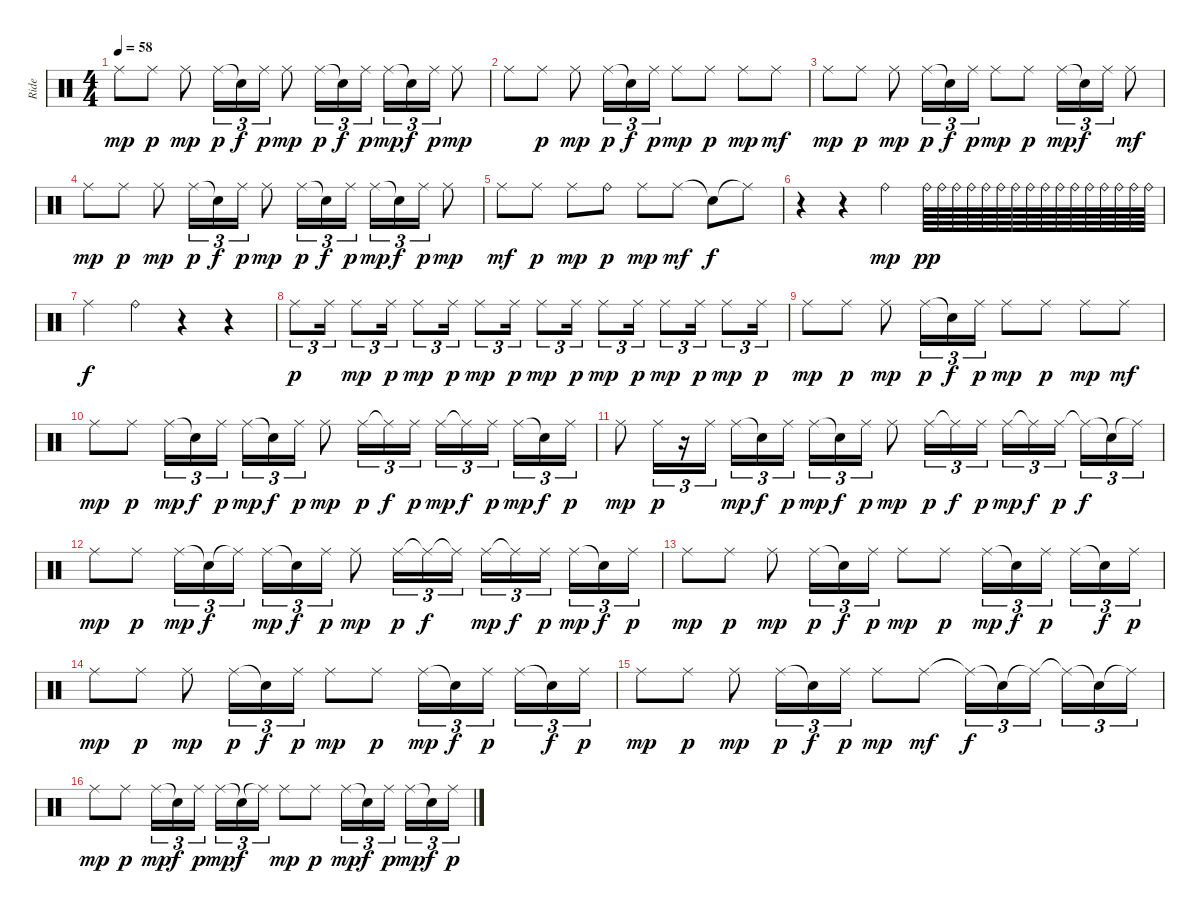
\track ("Ride" "Ride") {instrument percussion}
\staff {score}
\articulation defaults
\ts (4 4)
\tempo 58
\clef neutral
\ks c "Ride (middle)".8{dy mp} "Ride (middle)".8{dy p} "Ride (middle)".8{dy mp} "Ride (middle)".16{tu (3 2) dy p} "Snare (hit)"{t}.16{tu (3 2) dy f} "Ride (middle)".16{tu (3 2) dy p} "Ride (middle)".8{dy mp} "Ride (middle)".16{tu (3 2) dy p} "Snare (hit)"{t}.16{tu (3 2) dy f} "Ride (middle)".16{tu (3 2) dy p} "Ride (middle)".16{tu (3 2) dy mp} "Snare (hit)"{t}.16{tu (3 2) dy f} "Ride (middle)".16{tu (3 2) dy p} "Ride (middle)".8{dy mp}
|
"Ride (middle)".8 "Ride (middle)".8{dy p} "Ride (middle)".8{dy mp} "Ride (middle)".16{tu (3 2) dy p} "Snare (hit)"{t}.16{tu (3 2) dy f} "Ride (middle)".16{tu (3 2) dy p} "Ride (middle)".8{dy mp} "Ride (middle)".8{dy p} "Ride (middle)".8{dy mp} "Ride (middle)".8{dy mf} |
"Ride (middle)".8{dy mp} "Ride (middle)".8{dy p} "Ride (middle)".8{dy mp} "Ride (middle)".16{tu (3 2) dy p} "Snare (hit)"{t}.16{tu (3 2) dy f} "Ride (middle)".16{tu (3 2) dy p} "Ride (middle)".8{dy mp} "Ride (middle)".8{dy p} "Ride (middle)".16{tu (3 2) dy mp} "Snare (hit)"{t}.16{tu (3 2) dy f} "Ride (middle)".16{tu (3 2)} "Ride (middle)".8{dy mf} |
"Ride (middle)".8{dy mp} "Ride (middle)".8{dy p} "Ride (middle)".8{dy mp} "Ride (middle)".16{tu (3 2) dy p} "Snare (hit)"{t}.16{tu (3 2) dy f} "Ride (middle)".16{tu (3 2) dy p} "Ride (middle)".8{dy mp} "Ride (middle)".16{tu (3 2) dy p} "Snare (hit)"{t}.16{tu (3 2) dy f} "Ride (middle)".16{tu (3 2) dy p} "Ride (middle)".16{tu (3 2) dy mp} "Snare (hit)"{t}.16{tu (3 2) dy f} "Ride (middle)".16{tu (3 2) dy p} "Ride (middle)".8{dy mp} |
"Ride (middle)".8{dy mf} "Ride (middle)".8{dy p} "Ride (middle)".8{dy mp} "Ride (bell)".8{dy p} "Ride (middle)".8{dy mp} "Ride (middle)".8{dy mf} "Snare (hit)"{t}.8{dy f} "Ride (middle)"{t}.8 |
r.4 r.4 "Ride (bell)".4{dy mp} "Ride (bell)".64{dy pp} "Ride (bell)".64 "Ride (bell)".64 "Ride (bell)".64 "Ride (bell)".64 "Ride (bell)".64 "Ride (bell)".64 "Ride (bell)".64 "Ride (bell)".64 "Ride (bell)".64 "Ride (bell)".64 "Ride (bell)".64 "Ride (bell)".64 "Ride (bell)".64 "Ride (bell)".64 "Ride (bell)".64 |
"Ride (middle)".4{dy f} "Ride (bell)".4 r.4 r.4 |
"Ride (middle)".8{tu (3 2) dy p} "Ride (middle)".16{tu (3 2)} "Ride (middle)".8{tu (3 2) dy mp} "Ride (middle)".16{tu (3 2) dy p} "Ride (middle)".8{tu (3 2) dy mp} "Ride (middle)".16{tu (3 2) dy p} "Ride (middle)".8{tu (3 2) dy mp} "Ride (middle)".16{tu (3 2) dy p} "Ride (middle)".8{tu (3 2) dy mp} "Ride (middle)".16{tu (3 2) dy p} "Ride (middle)".8{tu (3 2) dy mp} "Ride (middle)".16{tu (3 2) dy p} "Ride (middle)".8{tu (3 2) dy mp} "Ride (middle)".16{tu (3 2) dy p} "Ride (middle)".8{tu (3 2) dy mp} "Ride (middle)".16{tu (3 2) dy p} |
"Ride (middle)".8{dy mp} "Ride (middle)".8{dy p} "Ride (middle)".8{dy mp} "Ride (middle)".16{tu (3 2) dy p} "Snare (hit)"{t}.16{tu (3 2) dy f} "Ride (middle)".16{tu (3 2) dy p} "Ride (middle)".8{dy mp} "Ride (middle)".8{dy p} "Ride (middle)".8{dy mp} "Ride (middle)".8{dy mf} |
"Ride (middle)".8{dy mp} "Ride (middle)".8{dy p} "Ride (middle)".16{tu (3 2) dy mp} "Snare (hit)"{t}.16{tu (3 2) dy f} "Ride (middle)".16{tu (3 2) dy p} "Ride (middle)".16{tu (3 2) dy mp} "Snare (hit)"{t}.16{tu (3 2) dy f} "Ride (middle)".16{tu (3 2) dy p} "Ride (middle)".8{dy mp} "Ride (middle)".16{tu (3 2) dy p} "Ride (middle)"{t}.16{tu (3 2) dy f} "Ride (middle)".16{tu (3 2) dy p} "Ride (middle)".16{tu (3 2) dy mp} "Ride (middle)"{t}.16{tu (3 2) dy f} "Ride (middle)".16{tu (3 2) dy p} "Ride (middle)".16{tu (3 2) dy mp} "Snare (hit)"{t}.16{tu (3 2) dy f} "Ride (middle)".16{tu (3 2) dy p} |
"Ride (middle)".8{dy mp} "Ride (middle)".16{tu (3 2) dy p} r.16{tu (3 2)} "Ride (middle)".16{tu (3 2)} "Ride (middle)".16{tu (3 2) dy mp} "Snare (hit)"{t}.16{tu (3 2) dy f} "Ride (middle)".16{tu (3 2) dy p} "Ride (middle)".16{tu (3 2) dy mp} "Snare (hit)"{t}.16{tu (3 2) dy f} "Ride (middle)".16{tu (3 2) dy p} "Ride (middle)".8{dy mp} "Ride (middle)".16{tu (3 2) dy p} "Ride (middle)"{t}.16{tu (3 2) dy f} "Ride (middle)".16{tu (3 2) dy p} "Ride (middle)".16{tu (3 2) dy mp} "Ride (middle)"{t}.16{tu (3 2) dy f} "Ride (middle)".16{tu (3 2) dy p} "Ride (middle)"{t}.16{tu (3 2) dy f} "Snare (hit)"{t}.16{tu (3 2)} "Ride (middle)"{t}.16{tu (3 2)} |
"Ride (middle)".8{dy mp} "Ride (middle)".8{dy p} "Ride (middle)".16{tu (3 2) dy mp} "Snare (hit)"{t}.16{tu (3 2) dy f} "Ride (middle)"{t}.16{tu (3 2)} "Ride (middle)".16{tu (3 2) dy mp} "Snare (hit)"{t}.16{tu (3 2) dy f} "Ride (middle)".16{tu (3 2) dy p} "Ride (middle)".8{dy mp} "Ride (middle)".16{tu (3 2) dy p} "Ride (middle)"{t}.16{tu (3 2) dy f} "Ride (middle)"{t}.16{tu (3 2)} "Ride (middle)".16{tu (3 2) dy mp} "Ride (middle)"{t}.16{tu (3 2) dy f} "Ride (middle)".16{tu (3 2) dy p} "Ride (middle)".16{tu (3 2) dy mp} "Snare (hit)"{t}.16{tu (3 2) dy f} "Ride (middle)".16{tu (3 2) dy p} |
"Ride (middle)".8{dy mp} "Ride (middle)".8{dy p} "Ride (middle)".8{dy mp} "Ride (middle)".16{tu (3 2) dy p} "Snare (hit)"{t}.16{tu (3 2) dy f} "Ride (middle)".16{tu (3 2) dy p} "Ride (middle)".8{dy mp} "Ride (middle)".8{dy p} "Ride (middle)".16{tu (3 2) dy mp} "Snare (hit)"{t}.16{tu (3 2) dy f} "Ride (middle)".16{tu (3 2) dy p} "Ride (middle)".16{tu (3 2)} "Snare (hit)"{t}.16{tu (3 2) dy f} "Ride (middle)".16{tu (3 2) dy p} |
"Ride (middle)".8{dy mp} "Ride (middle)".8{dy p} "Ride (middle)".8{dy mp} "Ride (middle)".16{tu (3 2) dy p} "Snare (hit)"{t}.16{tu (3 2) dy f} "Ride (middle)".16{tu (3 2) dy p} "Ride (middle)".8{dy mp} "Ride (middle)".8{dy p} "Ride (middle)".16{tu (3 2) dy mp} "Snare (hit)"{t}.16{tu (3 2) dy f} "Ride (middle)".16{tu (3 2) dy p} "Ride (middle)".16{tu (3 2)} "Snare (hit)"{t}.16{tu (3 2) dy f} "Ride (middle)".16{tu (3 2) dy p} |
"Ride (middle)".8{dy mp} "Ride (middle)".8{dy p} "Ride (middle)".8{dy mp} "Ride (middle)".16{tu (3 2) dy p} "Snare (hit)"{t}.16{tu (3 2) dy f} "Ride (middle)".16{tu (3 2) dy p} "Ride (middle)".8{dy mp} "Ride (middle)".8{dy mf} "Ride (middle)"{t}.16{tu (3 2) dy f} "Snare (hit)"{t}.16{tu (3 2)} "Ride (middle)"{t}.16{tu (3 2)} "Ride (middle)"{t}.16{tu (3 2)} "Snare (hit)"{t}.16{tu (3 2)} "Ride (middle)"{t}.16{tu (3 2)} |
"Ride (middle)".8{dy mp} "Ride (middle)".8{dy p} "Ride (middle)".16{tu (3 2) dy mp} "Snare (hit)"{t}.16{tu (3 2) dy f} "Ride (middle)".16{tu (3 2) dy p} "Ride (middle)".16{tu (3 2) dy mp} "Snare (hit)"{t}.16{tu (3 2) dy f} "Ride (middle)"{t}.16{tu (3 2)} "Ride (middle)".8{dy mp} "Ride (middle)".8{dy p} "Ride (middle)".16{tu (3 2) dy mp} "Snare (hit)"{t}.16{tu (3 2) dy f} "Ride (middle)".16{tu (3 2) dy p} "Ride (middle)".16{tu (3 2) dy mp} "Snare (hit)"{t}.16{tu (3 2) dy f} "Ride (middle)".16{tu (3 2) dy p}
